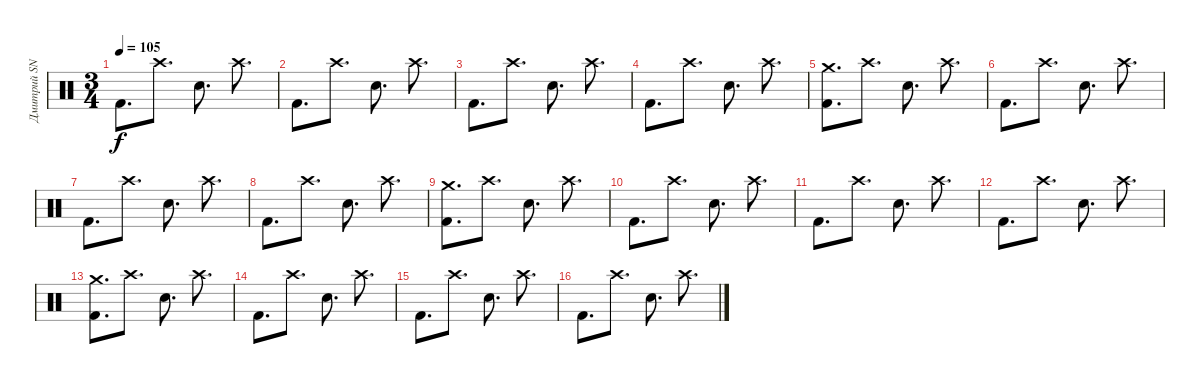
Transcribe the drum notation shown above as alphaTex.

\track ("Дмитрий SNAKE Хакимов" "Дмитрий SN") {instrument percussion}
\staff {score}
\articulation defaults
\ts (3 4)
\tempo 105
\clef neutral
\ks c "Kick (hit) 2".8{d dy f} "Crash high (hit)".8{d} "Snare (hit) 2".8{d} "Crash high (hit)".8{d}
|
"Kick (hit) 2".8{d} "Crash high (hit)".8{d} "Snare (hit) 2".8{d} "Crash high (hit)".8{d} |
"Kick (hit) 2".8{d} "Crash high (hit)".8{d} "Snare (hit) 2".8{d} "Crash high (hit)".8{d} |
"Kick (hit) 2".8{d} "Crash high (hit)".8{d} "Snare (hit) 2".8{d} "Crash high (hit)".8{d} |
("Crash medium (hit)" "Kick (hit) 2").8{d} "Crash high (hit)".8{d} "Snare (hit) 2".8{d} "Crash high (hit)".8{d} |
"Kick (hit) 2".8{d} "Crash high (hit)".8{d} "Snare (hit) 2".8{d} "Crash high (hit)".8{d} |
"Kick (hit) 2".8{d} "Crash high (hit)".8{d} "Snare (hit) 2".8{d} "Crash high (hit)".8{d} |
"Kick (hit) 2".8{d} "Crash high (hit)".8{d} "Snare (hit) 2".8{d} "Crash high (hit)".8{d} |
("Crash medium (hit)" "Kick (hit) 2").8{d} "Crash high (hit)".8{d} "Snare (hit) 2".8{d} "Crash high (hit)".8{d} |
"Kick (hit) 2".8{d} "Crash high (hit)".8{d} "Snare (hit) 2".8{d} "Crash high (hit)".8{d} |
"Kick (hit) 2".8{d} "Crash high (hit)".8{d} "Snare (hit) 2".8{d} "Crash high (hit)".8{d} |
"Kick (hit) 2".8{d} "Crash high (hit)".8{d} "Snare (hit) 2".8{d} "Crash high (hit)".8{d} |
("Crash medium (hit)" "Kick (hit) 2").8{d} "Crash high (hit)".8{d} "Snare (hit) 2".8{d} "Crash high (hit)".8{d} |
"Kick (hit) 2".8{d} "Crash high (hit)".8{d} "Snare (hit) 2".8{d} "Crash high (hit)".8{d} |
"Kick (hit) 2".8{d} "Crash high (hit)".8{d} "Snare (hit) 2".8{d} "Crash high (hit)".8{d} |
"Kick (hit) 2".8{d} "Crash high (hit)".8{d} "Snare (hit) 2".8{d} "Crash high (hit)".8{d}
